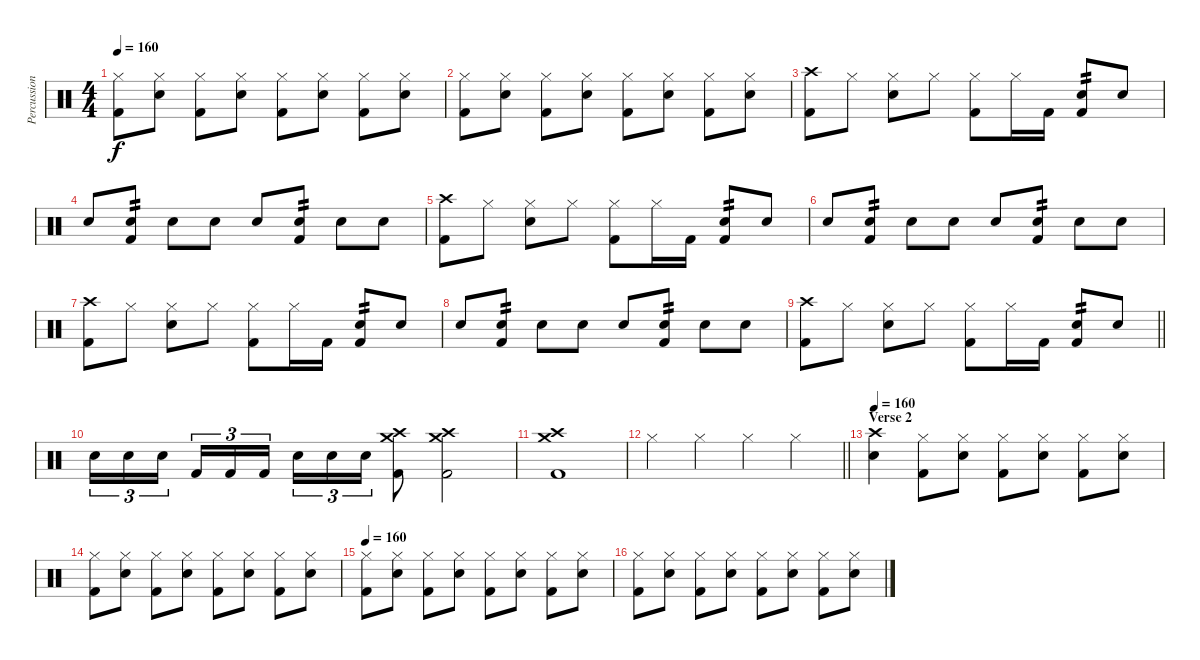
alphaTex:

\track ("Percussion" "Percussion") {instrument percussion}
\staff {score}
\articulation defaults
\ts (4 4)
\tempo 160
\clef neutral
\ks c
("Hi-Hat (closed)" "Kick (hit) 2").8{dy f} ("Hi-Hat (closed)" "Snare (hit) 2").8 ("Hi-Hat (closed)" "Kick (hit) 2").8 ("Hi-Hat (closed)" "Snare (hit) 2").8 ("Hi-Hat (closed)" "Kick (hit) 2").8 ("Hi-Hat (closed)" "Snare (hit) 2").8 ("Hi-Hat (closed)" "Kick (hit) 2").8 ("Hi-Hat (closed)" "Snare (hit) 2").8 |
("Hi-Hat (closed)" "Kick (hit) 2").8 ("Hi-Hat (closed)" "Snare (hit) 2").8 ("Hi-Hat (closed)" "Kick (hit) 2").8 ("Hi-Hat (closed)" "Snare (hit) 2").8 ("Hi-Hat (closed)" "Kick (hit) 2").8 ("Hi-Hat (closed)" "Snare (hit) 2").8 ("Hi-Hat (closed)" "Kick (hit) 2").8 ("Hi-Hat (closed)" "Snare (hit) 2").8 |
("Crash high (hit)" "Kick (hit) 2").8 "Hi-Hat (closed)".8 ("Hi-Hat (closed)" "Snare (hit) 2").8 "Hi-Hat (closed)".8 ("Hi-Hat (closed)" "Kick (hit) 2").8 "Hi-Hat (closed)".16 "Kick (hit) 2".16 ("Snare (hit) 2" "Kick (hit) 2").8{tp 2} "Snare (hit) 2".8 |
"Snare (hit) 2".8 ("Snare (hit) 2" "Kick (hit) 2").8{tp 2} "Snare (hit) 2".8 "Snare (hit) 2".8 "Snare (hit) 2".8 ("Snare (hit) 2" "Kick (hit) 2").8{tp 2} "Snare (hit) 2".8 "Snare (hit) 2".8 |
("Crash high (hit)" "Kick (hit) 2").8 "Hi-Hat (closed)".8 ("Hi-Hat (closed)" "Snare (hit) 2").8 "Hi-Hat (closed)".8 ("Hi-Hat (closed)" "Kick (hit) 2").8 "Hi-Hat (closed)".16 "Kick (hit) 2".16 ("Snare (hit) 2" "Kick (hit) 2").8{tp 2} "Snare (hit) 2".8 |
"Snare (hit) 2".8 ("Snare (hit) 2" "Kick (hit) 2").8{tp 2} "Snare (hit) 2".8 "Snare (hit) 2".8 "Snare (hit) 2".8 ("Snare (hit) 2" "Kick (hit) 2").8{tp 2} "Snare (hit) 2".8 "Snare (hit) 2".8 |
("Crash high (hit)" "Kick (hit) 2").8 "Hi-Hat (closed)".8 ("Hi-Hat (closed)" "Snare (hit) 2").8 "Hi-Hat (closed)".8 ("Hi-Hat (closed)" "Kick (hit) 2").8 "Hi-Hat (closed)".16 "Kick (hit) 2".16 ("Snare (hit) 2" "Kick (hit) 2").8{tp 2} "Snare (hit) 2".8 |
"Snare (hit) 2".8 ("Snare (hit) 2" "Kick (hit) 2").8{tp 2} "Snare (hit) 2".8 "Snare (hit) 2".8 "Snare (hit) 2".8 ("Snare (hit) 2" "Kick (hit) 2").8{tp 2} "Snare (hit) 2".8 "Snare (hit) 2".8 |
\barLineRight lightlight
("Crash high (hit)" "Kick (hit) 2").8 "Hi-Hat (closed)".8 ("Hi-Hat (closed)" "Snare (hit) 2").8 "Hi-Hat (closed)".8 ("Hi-Hat (closed)" "Kick (hit) 2").8 "Hi-Hat (closed)".16 "Kick (hit) 2".16 ("Snare (hit) 2" "Kick (hit) 2").8{tp 2} "Snare (hit) 2".8 |
"Snare (hit) 2".16{tu (3 2)} "Snare (hit) 2".16{tu (3 2)} "Snare (hit) 2".16{tu (3 2) beam splitsecondary} "Kick (hit) 2".16{tu (3 2)} "Kick (hit) 2".16{tu (3 2)} "Kick (hit) 2".16{tu (3 2)} "Snare (hit) 2".16{tu (3 2)} "Snare (hit) 2".16{tu (3 2)} "Snare (hit) 2".16{tu (3 2)} ("Crash high (hit)" "Crash medium (hit)" "Kick (hit) 2").8 ("Crash high (hit)" "Crash medium (hit)" "Kick (hit) 2").2 |
("Crash high (hit)" "Crash medium (hit)" "Kick (hit) 2").1 |
\barLineRight lightlight "Hi-Hat (closed)".4 "Hi-Hat (closed)".4 "Hi-Hat (closed)".4 "Hi-Hat (closed)".4
|
\section ("" "Verse 2")
\tempo 160
("Crash high (hit)" "Snare (hit) 2").4 ("Hi-Hat (closed)" "Kick (hit) 2").8 ("Hi-Hat (closed)" "Snare (hit) 2").8 ("Hi-Hat (closed)" "Kick (hit) 2").8 ("Hi-Hat (closed)" "Snare (hit) 2").8 ("Hi-Hat (closed)" "Kick (hit) 2").8 ("Hi-Hat (closed)" "Snare (hit) 2").8 |
("Hi-Hat (closed)" "Kick (hit) 2").8 ("Hi-Hat (closed)" "Snare (hit) 2").8 ("Hi-Hat (closed)" "Kick (hit) 2").8 ("Hi-Hat (closed)" "Snare (hit) 2").8 ("Hi-Hat (closed)" "Kick (hit) 2").8 ("Hi-Hat (closed)" "Snare (hit) 2").8 ("Hi-Hat (closed)" "Kick (hit) 2").8 ("Hi-Hat (closed)" "Snare (hit) 2").8 |
\tempo 160
("Hi-Hat (closed)" "Kick (hit) 2").8 ("Hi-Hat (closed)" "Snare (hit) 2").8 ("Hi-Hat (closed)" "Kick (hit) 2").8 ("Hi-Hat (closed)" "Snare (hit) 2").8 ("Hi-Hat (closed)" "Kick (hit) 2").8 ("Hi-Hat (closed)" "Snare (hit) 2").8 ("Hi-Hat (closed)" "Kick (hit) 2").8 ("Hi-Hat (closed)" "Snare (hit) 2").8 |
("Hi-Hat (closed)" "Kick (hit) 2").8 ("Hi-Hat (closed)" "Snare (hit) 2").8 ("Hi-Hat (closed)" "Kick (hit) 2").8 ("Hi-Hat (closed)" "Snare (hit) 2").8 ("Hi-Hat (closed)" "Kick (hit) 2").8 ("Hi-Hat (closed)" "Snare (hit) 2").8 ("Hi-Hat (closed)" "Kick (hit) 2").8 ("Hi-Hat (closed)" "Snare (hit) 2").8
